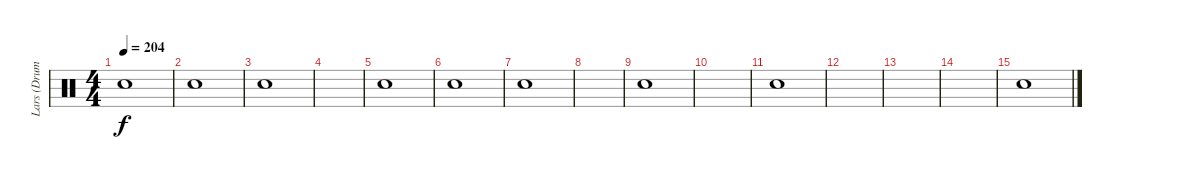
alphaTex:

\track ("Lars (Drums)" "Lars (Drum") {instrument percussion}
\staff {score}
\articulation defaults
\ts (4 4)
\tempo 204
\clef neutral
\ks c "Snare (hit)".1{dy f}
|
"Snare (hit)".1 |
"Snare (hit)".1 |
|
"Snare (hit)".1 |
"Snare (hit)".1 |
"Snare (hit)".1 |
|
"Snare (hit)".1 |
|
"Snare (hit)".1 |
|
|
|
"Snare (hit)".1
